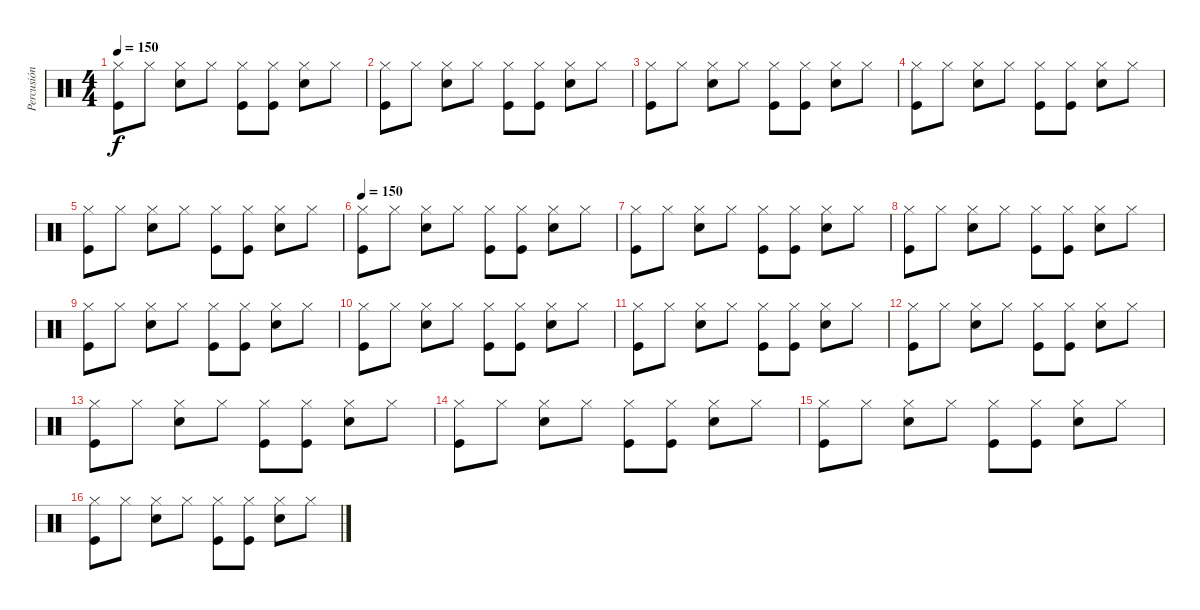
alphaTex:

\track ("Percusión" "Percusión") {instrument percussion}
\staff {score}
\articulation defaults
\ts (4 4)
\tempo 150
\clef neutral
\ks c
("Kick (hit)" "Hi-Hat (closed)").8{dy f} "Hi-Hat (closed)".8 ("Snare (hit) 2" "Hi-Hat (closed)").8 "Hi-Hat (closed)".8 ("Kick (hit)" "Hi-Hat (closed)").8 ("Kick (hit)" "Hi-Hat (closed)").8 ("Snare (hit) 2" "Hi-Hat (closed)").8 "Hi-Hat (closed)".8 |
("Kick (hit)" "Hi-Hat (closed)").8 "Hi-Hat (closed)".8 ("Snare (hit) 2" "Hi-Hat (closed)").8 "Hi-Hat (closed)".8 ("Kick (hit)" "Hi-Hat (closed)").8 ("Kick (hit)" "Hi-Hat (closed)").8 ("Snare (hit) 2" "Hi-Hat (closed)").8 "Hi-Hat (closed)".8 |
("Kick (hit)" "Hi-Hat (closed)").8 "Hi-Hat (closed)".8 ("Snare (hit) 2" "Hi-Hat (closed)").8 "Hi-Hat (closed)".8 ("Kick (hit)" "Hi-Hat (closed)").8 ("Kick (hit)" "Hi-Hat (closed)").8 ("Snare (hit) 2" "Hi-Hat (closed)").8 "Hi-Hat (closed)".8 |
("Kick (hit)" "Hi-Hat (closed)").8 "Hi-Hat (closed)".8 ("Snare (hit) 2" "Hi-Hat (closed)").8 "Hi-Hat (closed)".8 ("Kick (hit)" "Hi-Hat (closed)").8 ("Kick (hit)" "Hi-Hat (closed)").8 ("Snare (hit) 2" "Hi-Hat (closed)").8 "Hi-Hat (closed)".8 |
("Kick (hit)" "Hi-Hat (closed)").8 "Hi-Hat (closed)".8 ("Snare (hit) 2" "Hi-Hat (closed)").8 "Hi-Hat (closed)".8 ("Kick (hit)" "Hi-Hat (closed)").8 ("Kick (hit)" "Hi-Hat (closed)").8 ("Snare (hit) 2" "Hi-Hat (closed)").8 "Hi-Hat (closed)".8 |
\tempo 150
("Kick (hit)" "Hi-Hat (closed)").8 "Hi-Hat (closed)".8 ("Snare (hit) 2" "Hi-Hat (closed)").8 "Hi-Hat (closed)".8 ("Kick (hit)" "Hi-Hat (closed)").8 ("Kick (hit)" "Hi-Hat (closed)").8 ("Snare (hit) 2" "Hi-Hat (closed)").8 "Hi-Hat (closed)".8 |
("Kick (hit)" "Hi-Hat (closed)").8 "Hi-Hat (closed)".8 ("Snare (hit) 2" "Hi-Hat (closed)").8 "Hi-Hat (closed)".8 ("Kick (hit)" "Hi-Hat (closed)").8 ("Kick (hit)" "Hi-Hat (closed)").8 ("Snare (hit) 2" "Hi-Hat (closed)").8 "Hi-Hat (closed)".8 |
("Kick (hit)" "Hi-Hat (closed)").8 "Hi-Hat (closed)".8 ("Snare (hit) 2" "Hi-Hat (closed)").8 "Hi-Hat (closed)".8 ("Kick (hit)" "Hi-Hat (closed)").8 ("Kick (hit)" "Hi-Hat (closed)").8 ("Snare (hit) 2" "Hi-Hat (closed)").8 "Hi-Hat (closed)".8 |
("Kick (hit)" "Hi-Hat (closed)").8 "Hi-Hat (closed)".8 ("Snare (hit) 2" "Hi-Hat (closed)").8 "Hi-Hat (closed)".8 ("Kick (hit)" "Hi-Hat (closed)").8 ("Kick (hit)" "Hi-Hat (closed)").8 ("Snare (hit) 2" "Hi-Hat (closed)").8 "Hi-Hat (closed)".8 |
("Kick (hit)" "Hi-Hat (closed)").8 "Hi-Hat (closed)".8 ("Snare (hit) 2" "Hi-Hat (closed)").8 "Hi-Hat (closed)".8 ("Kick (hit)" "Hi-Hat (closed)").8 ("Kick (hit)" "Hi-Hat (closed)").8 ("Snare (hit) 2" "Hi-Hat (closed)").8 "Hi-Hat (closed)".8 |
("Kick (hit)" "Hi-Hat (closed)").8 "Hi-Hat (closed)".8 ("Snare (hit) 2" "Hi-Hat (closed)").8 "Hi-Hat (closed)".8 ("Kick (hit)" "Hi-Hat (closed)").8 ("Kick (hit)" "Hi-Hat (closed)").8 ("Snare (hit) 2" "Hi-Hat (closed)").8 "Hi-Hat (closed)".8 |
("Kick (hit)" "Hi-Hat (closed)").8 "Hi-Hat (closed)".8 ("Snare (hit) 2" "Hi-Hat (closed)").8 "Hi-Hat (closed)".8 ("Kick (hit)" "Hi-Hat (closed)").8 ("Kick (hit)" "Hi-Hat (closed)").8 ("Snare (hit) 2" "Hi-Hat (closed)").8 "Hi-Hat (closed)".8 |
("Kick (hit)" "Hi-Hat (closed)").8 "Hi-Hat (closed)".8 ("Snare (hit) 2" "Hi-Hat (closed)").8 "Hi-Hat (closed)".8 ("Kick (hit)" "Hi-Hat (closed)").8 ("Kick (hit)" "Hi-Hat (closed)").8 ("Snare (hit) 2" "Hi-Hat (closed)").8 "Hi-Hat (closed)".8 |
("Kick (hit)" "Hi-Hat (closed)").8 "Hi-Hat (closed)".8 ("Snare (hit) 2" "Hi-Hat (closed)").8 "Hi-Hat (closed)".8 ("Kick (hit)" "Hi-Hat (closed)").8 ("Kick (hit)" "Hi-Hat (closed)").8 ("Snare (hit) 2" "Hi-Hat (closed)").8 "Hi-Hat (closed)".8 |
("Kick (hit)" "Hi-Hat (closed)").8 "Hi-Hat (closed)".8 ("Snare (hit) 2" "Hi-Hat (closed)").8 "Hi-Hat (closed)".8 ("Kick (hit)" "Hi-Hat (closed)").8 ("Kick (hit)" "Hi-Hat (closed)").8 ("Snare (hit) 2" "Hi-Hat (closed)").8 "Hi-Hat (closed)".8 |
("Kick (hit)" "Hi-Hat (closed)").8 "Hi-Hat (closed)".8 ("Snare (hit) 2" "Hi-Hat (closed)").8 "Hi-Hat (closed)".8 ("Kick (hit)" "Hi-Hat (closed)").8 ("Kick (hit)" "Hi-Hat (closed)").8 ("Snare (hit) 2" "Hi-Hat (closed)").8 "Hi-Hat (closed)".8
